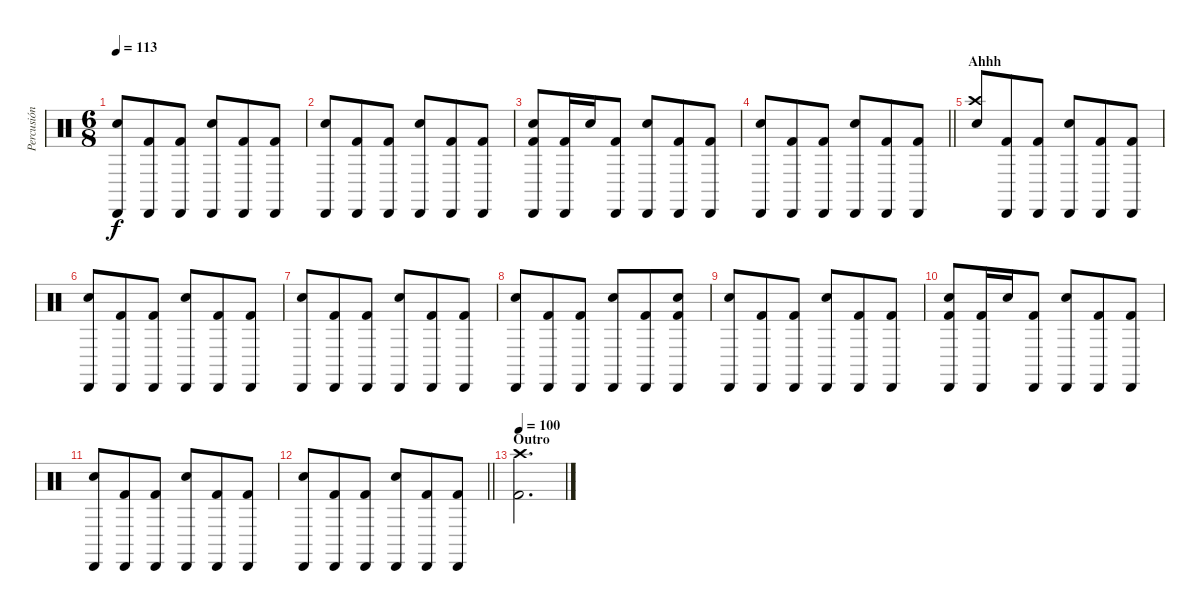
\track ("Percusión" "Percusión") {instrument percussion}
\staff {score}
\articulation defaults
\ts (6 8)
\tempo 113
\clef neutral
\ks c
("Cabasa (hit)" "Electric Snare (hit)").8{dy f} ("Cabasa (hit)" "Kick (hit) 2").8 ("Cabasa (hit)" "Kick (hit) 2").8 ("Cabasa (hit)" "Electric Snare (hit)").8 ("Cabasa (hit)" "Kick (hit) 2").8 ("Cabasa (hit)" "Kick (hit) 2").8 |
("Cabasa (hit)" "Electric Snare (hit)").8 ("Cabasa (hit)" "Kick (hit) 2").8 ("Cabasa (hit)" "Kick (hit) 2").8 ("Cabasa (hit)" "Electric Snare (hit)").8 ("Cabasa (hit)" "Kick (hit) 2").8 ("Cabasa (hit)" "Kick (hit) 2").8 |
("Cabasa (hit)" "Electric Snare (hit)" "Kick (hit) 2").8 ("Cabasa (hit)" "Kick (hit) 2").16 "Electric Snare (hit)".16 ("Cabasa (hit)" "Kick (hit) 2").8 ("Cabasa (hit)" "Electric Snare (hit)").8 ("Cabasa (hit)" "Kick (hit) 2").8 ("Cabasa (hit)" "Kick (hit) 2").8 |
\barLineRight lightlight
("Cabasa (hit)" "Electric Snare (hit)").8 ("Cabasa (hit)" "Kick (hit) 2").8 ("Cabasa (hit)" "Kick (hit) 2").8 ("Cabasa (hit)" "Electric Snare (hit)").8 ("Cabasa (hit)" "Kick (hit) 2").8 ("Cabasa (hit)" "Kick (hit) 2").8 |
\section ("" "Ahhh")
("Crash high (hit)" "Electric Snare (hit)").8 ("Cabasa (hit)" "Kick (hit) 2").8 ("Cabasa (hit)" "Kick (hit) 2").8 ("Cabasa (hit)" "Electric Snare (hit)").8 ("Cabasa (hit)" "Kick (hit) 2").8 ("Cabasa (hit)" "Kick (hit) 2").8 |
("Cabasa (hit)" "Electric Snare (hit)").8 ("Cabasa (hit)" "Kick (hit) 2").8 ("Cabasa (hit)" "Kick (hit) 2").8 ("Cabasa (hit)" "Electric Snare (hit)").8 ("Cabasa (hit)" "Kick (hit) 2").8 ("Cabasa (hit)" "Kick (hit) 2").8 |
("Cabasa (hit)" "Electric Snare (hit)").8 ("Cabasa (hit)" "Kick (hit) 2").8 ("Cabasa (hit)" "Kick (hit) 2").8 ("Cabasa (hit)" "Electric Snare (hit)").8 ("Cabasa (hit)" "Kick (hit) 2").8 ("Cabasa (hit)" "Kick (hit) 2").8 |
("Cabasa (hit)" "Electric Snare (hit)").8 ("Cabasa (hit)" "Kick (hit) 2").8 ("Cabasa (hit)" "Kick (hit) 2").8 ("Cabasa (hit)" "Electric Snare (hit)").8 ("Cabasa (hit)" "Kick (hit) 2").8 ("Cabasa (hit)" "Electric Snare (hit)" "Kick (hit) 2").8 |
("Cabasa (hit)" "Electric Snare (hit)").8 ("Cabasa (hit)" "Kick (hit) 2").8 ("Cabasa (hit)" "Kick (hit) 2").8 ("Cabasa (hit)" "Electric Snare (hit)").8 ("Cabasa (hit)" "Kick (hit) 2").8 ("Cabasa (hit)" "Kick (hit) 2").8 |
("Cabasa (hit)" "Electric Snare (hit)" "Kick (hit) 2").8 ("Cabasa (hit)" "Kick (hit) 2").16 "Electric Snare (hit)".16 ("Cabasa (hit)" "Kick (hit) 2").8 ("Cabasa (hit)" "Electric Snare (hit)").8 ("Cabasa (hit)" "Kick (hit) 2").8 ("Cabasa (hit)" "Kick (hit) 2").8 |
("Cabasa (hit)" "Electric Snare (hit)").8 ("Cabasa (hit)" "Kick (hit) 2").8 ("Cabasa (hit)" "Kick (hit) 2").8 ("Cabasa (hit)" "Electric Snare (hit)").8 ("Cabasa (hit)" "Kick (hit) 2").8 ("Cabasa (hit)" "Kick (hit) 2").8 |
\barLineRight lightlight
("Cabasa (hit)" "Electric Snare (hit)").8 ("Cabasa (hit)" "Kick (hit) 2").8 ("Cabasa (hit)" "Kick (hit) 2").8 ("Cabasa (hit)" "Electric Snare (hit)").8 ("Cabasa (hit)" "Kick (hit) 2").8 ("Cabasa (hit)" "Kick (hit) 2").8 |
\section ("" "Outro")
\tempo 100
("Crash high (hit)" "Kick (hit) 2").2{d}
